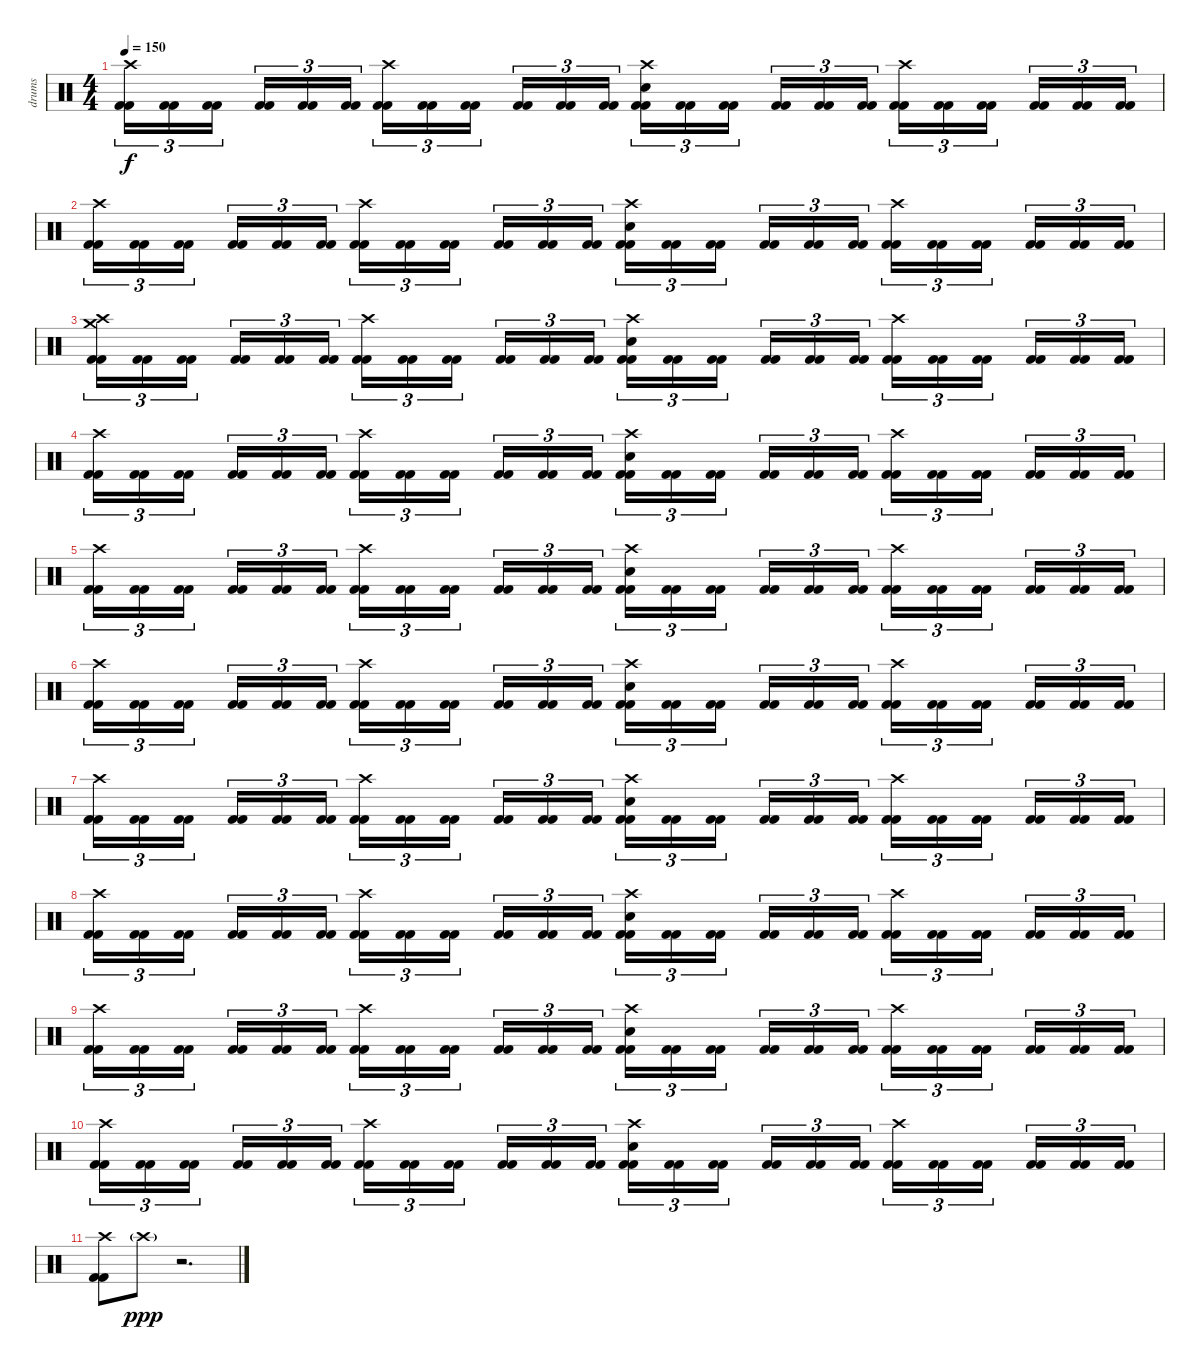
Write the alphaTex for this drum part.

\track ("drums" "drums") {instrument percussion}
\staff {score}
\articulation defaults
\ts (4 4)
\tempo 150
\clef neutral
\ks c
("Crash high (hit)" "Kick (hit) 2" "Kick (hit) 2").16{tu (3 2) dy f} ("Kick (hit) 2" "Kick (hit) 2").16{tu (3 2)} ("Kick (hit) 2" "Kick (hit) 2").16{tu (3 2)} ("Kick (hit) 2" "Kick (hit) 2").16{tu (3 2)} ("Kick (hit) 2" "Kick (hit) 2").16{tu (3 2)} ("Kick (hit) 2" "Kick (hit) 2").16{tu (3 2)} ("Crash high (hit)" "Kick (hit) 2" "Kick (hit) 2").16{tu (3 2)} ("Kick (hit) 2" "Kick (hit) 2").16{tu (3 2)} ("Kick (hit) 2" "Kick (hit) 2").16{tu (3 2)} ("Kick (hit) 2" "Kick (hit) 2").16{tu (3 2)} ("Kick (hit) 2" "Kick (hit) 2").16{tu (3 2)} ("Kick (hit) 2" "Kick (hit) 2").16{tu (3 2)} ("Crash high (hit)" "Electric Snare (hit)" "Kick (hit) 2" "Kick (hit) 2").16{tu (3 2)} ("Kick (hit) 2" "Kick (hit) 2").16{tu (3 2)} ("Kick (hit) 2" "Kick (hit) 2").16{tu (3 2)} ("Kick (hit) 2" "Kick (hit) 2").16{tu (3 2)} ("Kick (hit) 2" "Kick (hit) 2").16{tu (3 2)} ("Kick (hit) 2" "Kick (hit) 2").16{tu (3 2)} ("Crash high (hit)" "Kick (hit) 2" "Kick (hit) 2").16{tu (3 2)} ("Kick (hit) 2" "Kick (hit) 2").16{tu (3 2)} ("Kick (hit) 2" "Kick (hit) 2").16{tu (3 2)} ("Kick (hit) 2" "Kick (hit) 2").16{tu (3 2)} ("Kick (hit) 2" "Kick (hit) 2").16{tu (3 2)} ("Kick (hit) 2" "Kick (hit) 2").16{tu (3 2)} |
("Crash high (hit)" "Kick (hit) 2" "Kick (hit) 2").16{tu (3 2)} ("Kick (hit) 2" "Kick (hit) 2").16{tu (3 2)} ("Kick (hit) 2" "Kick (hit) 2").16{tu (3 2)} ("Kick (hit) 2" "Kick (hit) 2").16{tu (3 2)} ("Kick (hit) 2" "Kick (hit) 2").16{tu (3 2)} ("Kick (hit) 2" "Kick (hit) 2").16{tu (3 2)} ("Crash high (hit)" "Kick (hit) 2" "Kick (hit) 2").16{tu (3 2)} ("Kick (hit) 2" "Kick (hit) 2").16{tu (3 2)} ("Kick (hit) 2" "Kick (hit) 2").16{tu (3 2)} ("Kick (hit) 2" "Kick (hit) 2").16{tu (3 2)} ("Kick (hit) 2" "Kick (hit) 2").16{tu (3 2)} ("Kick (hit) 2" "Kick (hit) 2").16{tu (3 2)} ("Crash high (hit)" "Electric Snare (hit)" "Kick (hit) 2" "Kick (hit) 2").16{tu (3 2)} ("Kick (hit) 2" "Kick (hit) 2").16{tu (3 2)} ("Kick (hit) 2" "Kick (hit) 2").16{tu (3 2)} ("Kick (hit) 2" "Kick (hit) 2").16{tu (3 2)} ("Kick (hit) 2" "Kick (hit) 2").16{tu (3 2)} ("Kick (hit) 2" "Kick (hit) 2").16{tu (3 2)} ("Crash high (hit)" "Kick (hit) 2" "Kick (hit) 2").16{tu (3 2)} ("Kick (hit) 2" "Kick (hit) 2").16{tu (3 2)} ("Kick (hit) 2" "Kick (hit) 2").16{tu (3 2)} ("Kick (hit) 2" "Kick (hit) 2").16{tu (3 2)} ("Kick (hit) 2" "Kick (hit) 2").16{tu (3 2)} ("Kick (hit) 2" "Kick (hit) 2").16{tu (3 2)} |
("Crash high (hit)" "Crash medium (hit)" "Kick (hit) 2" "Kick (hit) 2").16{tu (3 2)} ("Kick (hit) 2" "Kick (hit) 2").16{tu (3 2)} ("Kick (hit) 2" "Kick (hit) 2").16{tu (3 2)} ("Kick (hit) 2" "Kick (hit) 2").16{tu (3 2)} ("Kick (hit) 2" "Kick (hit) 2").16{tu (3 2)} ("Kick (hit) 2" "Kick (hit) 2").16{tu (3 2)} ("Crash high (hit)" "Kick (hit) 2" "Kick (hit) 2").16{tu (3 2)} ("Kick (hit) 2" "Kick (hit) 2").16{tu (3 2)} ("Kick (hit) 2" "Kick (hit) 2").16{tu (3 2)} ("Kick (hit) 2" "Kick (hit) 2").16{tu (3 2)} ("Kick (hit) 2" "Kick (hit) 2").16{tu (3 2)} ("Kick (hit) 2" "Kick (hit) 2").16{tu (3 2)} ("Crash high (hit)" "Electric Snare (hit)" "Kick (hit) 2" "Kick (hit) 2").16{tu (3 2)} ("Kick (hit) 2" "Kick (hit) 2").16{tu (3 2)} ("Kick (hit) 2" "Kick (hit) 2").16{tu (3 2)} ("Kick (hit) 2" "Kick (hit) 2").16{tu (3 2)} ("Kick (hit) 2" "Kick (hit) 2").16{tu (3 2)} ("Kick (hit) 2" "Kick (hit) 2").16{tu (3 2)} ("Crash high (hit)" "Kick (hit) 2" "Kick (hit) 2").16{tu (3 2)} ("Kick (hit) 2" "Kick (hit) 2").16{tu (3 2)} ("Kick (hit) 2" "Kick (hit) 2").16{tu (3 2)} ("Kick (hit) 2" "Kick (hit) 2").16{tu (3 2)} ("Kick (hit) 2" "Kick (hit) 2").16{tu (3 2)} ("Kick (hit) 2" "Kick (hit) 2").16{tu (3 2)} |
("Crash high (hit)" "Kick (hit) 2" "Kick (hit) 2").16{tu (3 2)} ("Kick (hit) 2" "Kick (hit) 2").16{tu (3 2)} ("Kick (hit) 2" "Kick (hit) 2").16{tu (3 2)} ("Kick (hit) 2" "Kick (hit) 2").16{tu (3 2)} ("Kick (hit) 2" "Kick (hit) 2").16{tu (3 2)} ("Kick (hit) 2" "Kick (hit) 2").16{tu (3 2)} ("Crash high (hit)" "Kick (hit) 2" "Kick (hit) 2").16{tu (3 2)} ("Kick (hit) 2" "Kick (hit) 2").16{tu (3 2)} ("Kick (hit) 2" "Kick (hit) 2").16{tu (3 2)} ("Kick (hit) 2" "Kick (hit) 2").16{tu (3 2)} ("Kick (hit) 2" "Kick (hit) 2").16{tu (3 2)} ("Kick (hit) 2" "Kick (hit) 2").16{tu (3 2)} ("Crash high (hit)" "Electric Snare (hit)" "Kick (hit) 2" "Kick (hit) 2").16{tu (3 2)} ("Kick (hit) 2" "Kick (hit) 2").16{tu (3 2)} ("Kick (hit) 2" "Kick (hit) 2").16{tu (3 2)} ("Kick (hit) 2" "Kick (hit) 2").16{tu (3 2)} ("Kick (hit) 2" "Kick (hit) 2").16{tu (3 2)} ("Kick (hit) 2" "Kick (hit) 2").16{tu (3 2)} ("Crash high (hit)" "Kick (hit) 2" "Kick (hit) 2").16{tu (3 2)} ("Kick (hit) 2" "Kick (hit) 2").16{tu (3 2)} ("Kick (hit) 2" "Kick (hit) 2").16{tu (3 2)} ("Kick (hit) 2" "Kick (hit) 2").16{tu (3 2)} ("Kick (hit) 2" "Kick (hit) 2").16{tu (3 2)} ("Kick (hit) 2" "Kick (hit) 2").16{tu (3 2)} |
("Crash high (hit)" "Kick (hit) 2" "Kick (hit) 2").16{tu (3 2)} ("Kick (hit) 2" "Kick (hit) 2").16{tu (3 2)} ("Kick (hit) 2" "Kick (hit) 2").16{tu (3 2)} ("Kick (hit) 2" "Kick (hit) 2").16{tu (3 2)} ("Kick (hit) 2" "Kick (hit) 2").16{tu (3 2)} ("Kick (hit) 2" "Kick (hit) 2").16{tu (3 2)} ("Crash high (hit)" "Kick (hit) 2" "Kick (hit) 2").16{tu (3 2)} ("Kick (hit) 2" "Kick (hit) 2").16{tu (3 2)} ("Kick (hit) 2" "Kick (hit) 2").16{tu (3 2)} ("Kick (hit) 2" "Kick (hit) 2").16{tu (3 2)} ("Kick (hit) 2" "Kick (hit) 2").16{tu (3 2)} ("Kick (hit) 2" "Kick (hit) 2").16{tu (3 2)} ("Crash high (hit)" "Electric Snare (hit)" "Kick (hit) 2" "Kick (hit) 2").16{tu (3 2)} ("Kick (hit) 2" "Kick (hit) 2").16{tu (3 2)} ("Kick (hit) 2" "Kick (hit) 2").16{tu (3 2)} ("Kick (hit) 2" "Kick (hit) 2").16{tu (3 2)} ("Kick (hit) 2" "Kick (hit) 2").16{tu (3 2)} ("Kick (hit) 2" "Kick (hit) 2").16{tu (3 2)} ("Crash high (hit)" "Kick (hit) 2" "Kick (hit) 2").16{tu (3 2)} ("Kick (hit) 2" "Kick (hit) 2").16{tu (3 2)} ("Kick (hit) 2" "Kick (hit) 2").16{tu (3 2)} ("Kick (hit) 2" "Kick (hit) 2").16{tu (3 2)} ("Kick (hit) 2" "Kick (hit) 2").16{tu (3 2)} ("Kick (hit) 2" "Kick (hit) 2").16{tu (3 2)} |
("Crash high (hit)" "Kick (hit) 2" "Kick (hit) 2").16{tu (3 2)} ("Kick (hit) 2" "Kick (hit) 2").16{tu (3 2)} ("Kick (hit) 2" "Kick (hit) 2").16{tu (3 2)} ("Kick (hit) 2" "Kick (hit) 2").16{tu (3 2)} ("Kick (hit) 2" "Kick (hit) 2").16{tu (3 2)} ("Kick (hit) 2" "Kick (hit) 2").16{tu (3 2)} ("Crash high (hit)" "Kick (hit) 2" "Kick (hit) 2").16{tu (3 2)} ("Kick (hit) 2" "Kick (hit) 2").16{tu (3 2)} ("Kick (hit) 2" "Kick (hit) 2").16{tu (3 2)} ("Kick (hit) 2" "Kick (hit) 2").16{tu (3 2)} ("Kick (hit) 2" "Kick (hit) 2").16{tu (3 2)} ("Kick (hit) 2" "Kick (hit) 2").16{tu (3 2)} ("Crash high (hit)" "Electric Snare (hit)" "Kick (hit) 2" "Kick (hit) 2").16{tu (3 2)} ("Kick (hit) 2" "Kick (hit) 2").16{tu (3 2)} ("Kick (hit) 2" "Kick (hit) 2").16{tu (3 2)} ("Kick (hit) 2" "Kick (hit) 2").16{tu (3 2)} ("Kick (hit) 2" "Kick (hit) 2").16{tu (3 2)} ("Kick (hit) 2" "Kick (hit) 2").16{tu (3 2)} ("Crash high (hit)" "Kick (hit) 2" "Kick (hit) 2").16{tu (3 2)} ("Kick (hit) 2" "Kick (hit) 2").16{tu (3 2)} ("Kick (hit) 2" "Kick (hit) 2").16{tu (3 2)} ("Kick (hit) 2" "Kick (hit) 2").16{tu (3 2)} ("Kick (hit) 2" "Kick (hit) 2").16{tu (3 2)} ("Kick (hit) 2" "Kick (hit) 2").16{tu (3 2)} |
("Crash high (hit)" "Kick (hit) 2" "Kick (hit) 2").16{tu (3 2)} ("Kick (hit) 2" "Kick (hit) 2").16{tu (3 2)} ("Kick (hit) 2" "Kick (hit) 2").16{tu (3 2)} ("Kick (hit) 2" "Kick (hit) 2").16{tu (3 2)} ("Kick (hit) 2" "Kick (hit) 2").16{tu (3 2)} ("Kick (hit) 2" "Kick (hit) 2").16{tu (3 2)} ("Crash high (hit)" "Kick (hit) 2" "Kick (hit) 2").16{tu (3 2)} ("Kick (hit) 2" "Kick (hit) 2").16{tu (3 2)} ("Kick (hit) 2" "Kick (hit) 2").16{tu (3 2)} ("Kick (hit) 2" "Kick (hit) 2").16{tu (3 2)} ("Kick (hit) 2" "Kick (hit) 2").16{tu (3 2)} ("Kick (hit) 2" "Kick (hit) 2").16{tu (3 2)} ("Crash high (hit)" "Electric Snare (hit)" "Kick (hit) 2" "Kick (hit) 2").16{tu (3 2)} ("Kick (hit) 2" "Kick (hit) 2").16{tu (3 2)} ("Kick (hit) 2" "Kick (hit) 2").16{tu (3 2)} ("Kick (hit) 2" "Kick (hit) 2").16{tu (3 2)} ("Kick (hit) 2" "Kick (hit) 2").16{tu (3 2)} ("Kick (hit) 2" "Kick (hit) 2").16{tu (3 2)} ("Crash high (hit)" "Kick (hit) 2" "Kick (hit) 2").16{tu (3 2)} ("Kick (hit) 2" "Kick (hit) 2").16{tu (3 2)} ("Kick (hit) 2" "Kick (hit) 2").16{tu (3 2)} ("Kick (hit) 2" "Kick (hit) 2").16{tu (3 2)} ("Kick (hit) 2" "Kick (hit) 2").16{tu (3 2)} ("Kick (hit) 2" "Kick (hit) 2").16{tu (3 2)} |
("Crash high (hit)" "Kick (hit) 2" "Kick (hit) 2").16{tu (3 2)} ("Kick (hit) 2" "Kick (hit) 2").16{tu (3 2)} ("Kick (hit) 2" "Kick (hit) 2").16{tu (3 2)} ("Kick (hit) 2" "Kick (hit) 2").16{tu (3 2)} ("Kick (hit) 2" "Kick (hit) 2").16{tu (3 2)} ("Kick (hit) 2" "Kick (hit) 2").16{tu (3 2)} ("Crash high (hit)" "Kick (hit) 2" "Kick (hit) 2").16{tu (3 2)} ("Kick (hit) 2" "Kick (hit) 2").16{tu (3 2)} ("Kick (hit) 2" "Kick (hit) 2").16{tu (3 2)} ("Kick (hit) 2" "Kick (hit) 2").16{tu (3 2)} ("Kick (hit) 2" "Kick (hit) 2").16{tu (3 2)} ("Kick (hit) 2" "Kick (hit) 2").16{tu (3 2)} ("Crash high (hit)" "Electric Snare (hit)" "Kick (hit) 2" "Kick (hit) 2").16{tu (3 2)} ("Kick (hit) 2" "Kick (hit) 2").16{tu (3 2)} ("Kick (hit) 2" "Kick (hit) 2").16{tu (3 2)} ("Kick (hit) 2" "Kick (hit) 2").16{tu (3 2)} ("Kick (hit) 2" "Kick (hit) 2").16{tu (3 2)} ("Kick (hit) 2" "Kick (hit) 2").16{tu (3 2)} ("Crash high (hit)" "Kick (hit) 2" "Kick (hit) 2").16{tu (3 2)} ("Kick (hit) 2" "Kick (hit) 2").16{tu (3 2)} ("Kick (hit) 2" "Kick (hit) 2").16{tu (3 2)} ("Kick (hit) 2" "Kick (hit) 2").16{tu (3 2)} ("Kick (hit) 2" "Kick (hit) 2").16{tu (3 2)} ("Kick (hit) 2" "Kick (hit) 2").16{tu (3 2)} |
("Crash high (hit)" "Kick (hit) 2" "Kick (hit) 2").16{tu (3 2)} ("Kick (hit) 2" "Kick (hit) 2").16{tu (3 2)} ("Kick (hit) 2" "Kick (hit) 2").16{tu (3 2)} ("Kick (hit) 2" "Kick (hit) 2").16{tu (3 2)} ("Kick (hit) 2" "Kick (hit) 2").16{tu (3 2)} ("Kick (hit) 2" "Kick (hit) 2").16{tu (3 2)} ("Crash high (hit)" "Kick (hit) 2" "Kick (hit) 2").16{tu (3 2)} ("Kick (hit) 2" "Kick (hit) 2").16{tu (3 2)} ("Kick (hit) 2" "Kick (hit) 2").16{tu (3 2)} ("Kick (hit) 2" "Kick (hit) 2").16{tu (3 2)} ("Kick (hit) 2" "Kick (hit) 2").16{tu (3 2)} ("Kick (hit) 2" "Kick (hit) 2").16{tu (3 2)} ("Crash high (hit)" "Electric Snare (hit)" "Kick (hit) 2" "Kick (hit) 2").16{tu (3 2)} ("Kick (hit) 2" "Kick (hit) 2").16{tu (3 2)} ("Kick (hit) 2" "Kick (hit) 2").16{tu (3 2)} ("Kick (hit) 2" "Kick (hit) 2").16{tu (3 2)} ("Kick (hit) 2" "Kick (hit) 2").16{tu (3 2)} ("Kick (hit) 2" "Kick (hit) 2").16{tu (3 2)} ("Crash high (hit)" "Kick (hit) 2" "Kick (hit) 2").16{tu (3 2)} ("Kick (hit) 2" "Kick (hit) 2").16{tu (3 2)} ("Kick (hit) 2" "Kick (hit) 2").16{tu (3 2)} ("Kick (hit) 2" "Kick (hit) 2").16{tu (3 2)} ("Kick (hit) 2" "Kick (hit) 2").16{tu (3 2)} ("Kick (hit) 2" "Kick (hit) 2").16{tu (3 2)} |
("Crash high (hit)" "Kick (hit) 2" "Kick (hit) 2").16{tu (3 2)} ("Kick (hit) 2" "Kick (hit) 2").16{tu (3 2)} ("Kick (hit) 2" "Kick (hit) 2").16{tu (3 2)} ("Kick (hit) 2" "Kick (hit) 2").16{tu (3 2)} ("Kick (hit) 2" "Kick (hit) 2").16{tu (3 2)} ("Kick (hit) 2" "Kick (hit) 2").16{tu (3 2)} ("Crash high (hit)" "Kick (hit) 2" "Kick (hit) 2").16{tu (3 2)} ("Kick (hit) 2" "Kick (hit) 2").16{tu (3 2)} ("Kick (hit) 2" "Kick (hit) 2").16{tu (3 2)} ("Kick (hit) 2" "Kick (hit) 2").16{tu (3 2)} ("Kick (hit) 2" "Kick (hit) 2").16{tu (3 2)} ("Kick (hit) 2" "Kick (hit) 2").16{tu (3 2)} ("Crash high (hit)" "Electric Snare (hit)" "Kick (hit) 2" "Kick (hit) 2").16{tu (3 2)} ("Kick (hit) 2" "Kick (hit) 2").16{tu (3 2)} ("Kick (hit) 2" "Kick (hit) 2").16{tu (3 2)} ("Kick (hit) 2" "Kick (hit) 2").16{tu (3 2)} ("Kick (hit) 2" "Kick (hit) 2").16{tu (3 2)} ("Kick (hit) 2" "Kick (hit) 2").16{tu (3 2)} ("Crash high (hit)" "Kick (hit) 2" "Kick (hit) 2").16{tu (3 2)} ("Kick (hit) 2" "Kick (hit) 2").16{tu (3 2)} ("Kick (hit) 2" "Kick (hit) 2").16{tu (3 2)} ("Kick (hit) 2" "Kick (hit) 2").16{tu (3 2)} ("Kick (hit) 2" "Kick (hit) 2").16{tu (3 2)} ("Kick (hit) 2" "Kick (hit) 2").16{tu (3 2)} |
("Crash high (hit)" "Kick (hit) 2" "Kick (hit) 2").8 "Crash high (hit)"{g}.8{dy ppp} r.2{d}
